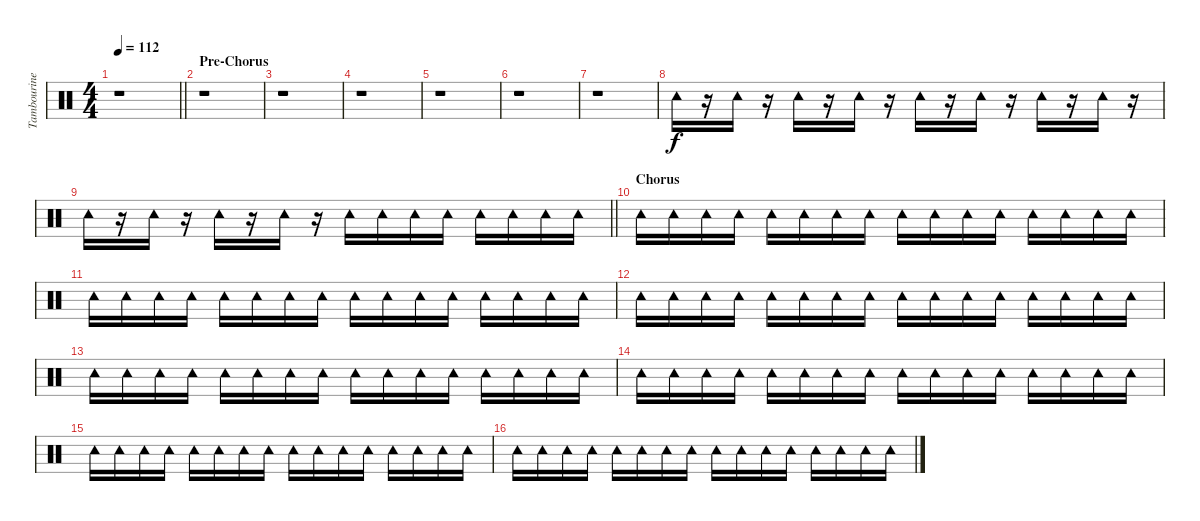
\track ("Tambourine" "Tambourine") {instrument percussion}
\staff {score}
\articulation defaults
\ts (4 4)
\tempo 112
\clef neutral
\barLineRight lightlight
\ks c
r.1{dy f} |
\section ("" "Pre-Chorus")
r.1 |
r.1 |
r.1 |
r.1 |
r.1 |
r.1 |
"Tambourine (hit)".16 r.16 "Tambourine (hit)".16 r.16 "Tambourine (hit)".16 r.16 "Tambourine (hit)".16 r.16 "Tambourine (hit)".16 r.16 "Tambourine (hit)".16 r.16 "Tambourine (hit)".16 r.16 "Tambourine (hit)".16 r.16 |
\barLineRight lightlight "Tambourine (hit)".16
r.16 "Tambourine (hit)".16 r.16 "Tambourine (hit)".16 r.16 "Tambourine (hit)".16 r.16 "Tambourine (hit)".16 "Tambourine (hit)".16 "Tambourine (hit)".16 "Tambourine (hit)".16 "Tambourine (hit)".16 "Tambourine (hit)".16 "Tambourine (hit)".16 "Tambourine (hit)".16 |
\section ("" "Chorus")
"Tambourine (hit)".16 "Tambourine (hit)".16 "Tambourine (hit)".16 "Tambourine (hit)".16 "Tambourine (hit)".16 "Tambourine (hit)".16 "Tambourine (hit)".16 "Tambourine (hit)".16 "Tambourine (hit)".16 "Tambourine (hit)".16 "Tambourine (hit)".16 "Tambourine (hit)".16 "Tambourine (hit)".16 "Tambourine (hit)".16 "Tambourine (hit)".16 "Tambourine (hit)".16 |
"Tambourine (hit)".16 "Tambourine (hit)".16 "Tambourine (hit)".16 "Tambourine (hit)".16 "Tambourine (hit)".16 "Tambourine (hit)".16 "Tambourine (hit)".16 "Tambourine (hit)".16 "Tambourine (hit)".16 "Tambourine (hit)".16 "Tambourine (hit)".16 "Tambourine (hit)".16 "Tambourine (hit)".16 "Tambourine (hit)".16 "Tambourine (hit)".16 "Tambourine (hit)".16 |
"Tambourine (hit)".16 "Tambourine (hit)".16 "Tambourine (hit)".16 "Tambourine (hit)".16 "Tambourine (hit)".16 "Tambourine (hit)".16 "Tambourine (hit)".16 "Tambourine (hit)".16 "Tambourine (hit)".16 "Tambourine (hit)".16 "Tambourine (hit)".16 "Tambourine (hit)".16 "Tambourine (hit)".16 "Tambourine (hit)".16 "Tambourine (hit)".16 "Tambourine (hit)".16 |
"Tambourine (hit)".16 "Tambourine (hit)".16 "Tambourine (hit)".16 "Tambourine (hit)".16 "Tambourine (hit)".16 "Tambourine (hit)".16 "Tambourine (hit)".16 "Tambourine (hit)".16 "Tambourine (hit)".16 "Tambourine (hit)".16 "Tambourine (hit)".16 "Tambourine (hit)".16 "Tambourine (hit)".16 "Tambourine (hit)".16 "Tambourine (hit)".16 "Tambourine (hit)".16 |
"Tambourine (hit)".16 "Tambourine (hit)".16 "Tambourine (hit)".16 "Tambourine (hit)".16 "Tambourine (hit)".16 "Tambourine (hit)".16 "Tambourine (hit)".16 "Tambourine (hit)".16 "Tambourine (hit)".16 "Tambourine (hit)".16 "Tambourine (hit)".16 "Tambourine (hit)".16 "Tambourine (hit)".16 "Tambourine (hit)".16 "Tambourine (hit)".16 "Tambourine (hit)".16 |
"Tambourine (hit)".16 "Tambourine (hit)".16 "Tambourine (hit)".16 "Tambourine (hit)".16 "Tambourine (hit)".16 "Tambourine (hit)".16 "Tambourine (hit)".16 "Tambourine (hit)".16 "Tambourine (hit)".16 "Tambourine (hit)".16 "Tambourine (hit)".16 "Tambourine (hit)".16 "Tambourine (hit)".16 "Tambourine (hit)".16 "Tambourine (hit)".16 "Tambourine (hit)".16 |
"Tambourine (hit)".16 "Tambourine (hit)".16 "Tambourine (hit)".16 "Tambourine (hit)".16 "Tambourine (hit)".16 "Tambourine (hit)".16 "Tambourine (hit)".16 "Tambourine (hit)".16 "Tambourine (hit)".16 "Tambourine (hit)".16 "Tambourine (hit)".16 "Tambourine (hit)".16 "Tambourine (hit)".16 "Tambourine (hit)".16 "Tambourine (hit)".16 "Tambourine (hit)".16
